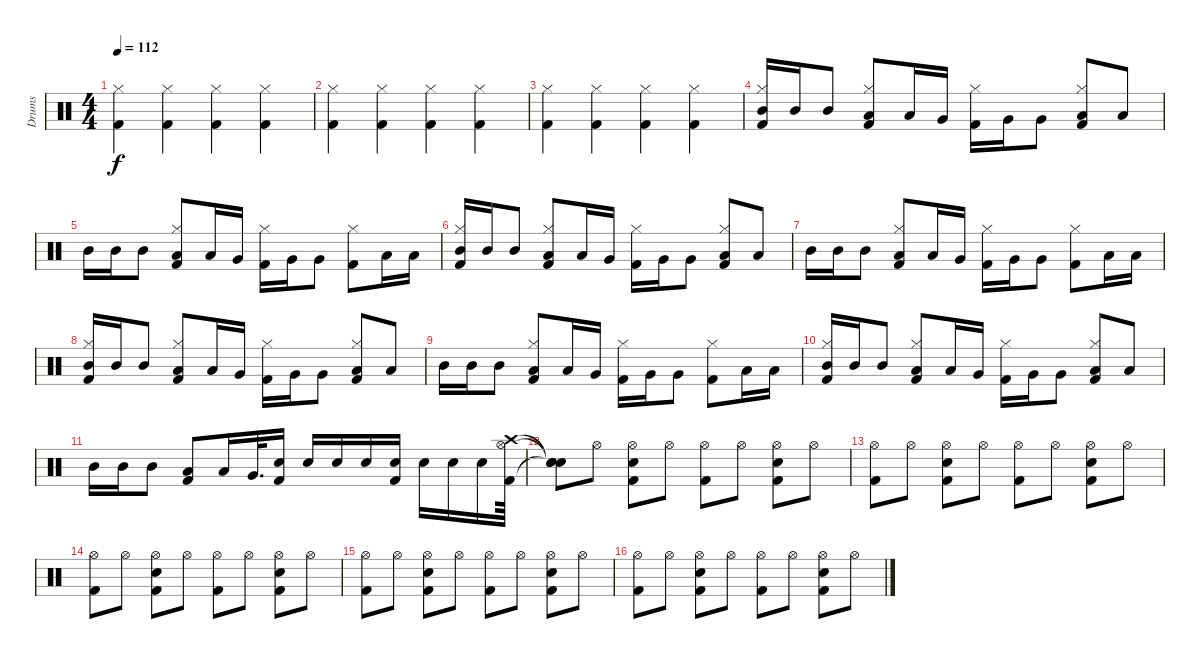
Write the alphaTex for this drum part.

\track ("Drums" "Drums") {instrument percussion}
\staff {score}
\articulation defaults
\ts (4 4)
\tempo 112
\clef neutral
\ks c
("Kick (hit) 2" "Hi-Hat (closed)").4{dy f} ("Hi-Hat (closed)" "Kick (hit) 2").4 ("Kick (hit) 2" "Hi-Hat (closed)").4 ("Hi-Hat (closed)" "Kick (hit) 2").4 |
("Kick (hit) 2" "Hi-Hat (closed)").4 ("Hi-Hat (closed)" "Kick (hit) 2").4 ("Kick (hit) 2" "Hi-Hat (closed)").4 ("Hi-Hat (closed)" "Kick (hit) 2").4 |
("Kick (hit) 2" "Hi-Hat (closed)").4 ("Hi-Hat (closed)" "Kick (hit) 2").4 ("Kick (hit) 2" "Hi-Hat (closed)").4 ("Hi-Hat (closed)" "Kick (hit) 2").4 |
("Hi-Hat (closed)" "Kick (hit) 2" "Mid Tom (hit)").16 "Mid Tom (hit)".16 "Mid Tom (hit)".8 ("Hi-Hat (closed)" "Low Tom (hit)" "Kick (hit) 2").8 "Low Tom (hit)".16 "Very Low Tom (hit)".16 ("Kick (hit) 2" "Hi-Hat (closed)").16 "Very Low Tom (hit)".16 "Very Low Tom (hit)".8 ("Low Floor Tom (hit)" "Kick (hit) 2" "Hi-Hat (closed)").8 "Low Floor Tom (hit)".8 |
"Mid Tom (hit)".16 "Mid Tom (hit)".16 "Mid Tom (hit)".8 ("Hi-Hat (closed)" "Kick (hit) 2" "Low Tom (hit)").8 "Low Tom (hit)".16 "Very Low Tom (hit)".16 ("Kick (hit) 2" "Hi-Hat (closed)").16 "Very Low Tom (hit)".16 "Very Low Tom (hit)".8 ("Kick (hit) 2" "Hi-Hat (closed)").8 "Low Floor Tom (hit)".16 "Low Floor Tom (hit)".16 |
("Hi-Hat (closed)" "Kick (hit) 2" "Mid Tom (hit)").16 "Mid Tom (hit)".16 "Mid Tom (hit)".8 ("Hi-Hat (closed)" "Low Tom (hit)" "Kick (hit) 2").8 "Low Tom (hit)".16 "Very Low Tom (hit)".16 ("Kick (hit) 2" "Hi-Hat (closed)").16 "Very Low Tom (hit)".16 "Very Low Tom (hit)".8 ("Low Floor Tom (hit)" "Kick (hit) 2" "Hi-Hat (closed)").8 "Low Floor Tom (hit)".8 |
"Mid Tom (hit)".16 "Mid Tom (hit)".16 "Mid Tom (hit)".8 ("Hi-Hat (closed)" "Kick (hit) 2" "Low Tom (hit)").8 "Low Tom (hit)".16 "Very Low Tom (hit)".16 ("Kick (hit) 2" "Hi-Hat (closed)").16 "Very Low Tom (hit)".16 "Very Low Tom (hit)".8 ("Kick (hit) 2" "Hi-Hat (closed)").8 "Low Floor Tom (hit)".16 "Low Floor Tom (hit)".16 |
("Hi-Hat (closed)" "Kick (hit) 2" "Mid Tom (hit)").16 "Mid Tom (hit)".16 "Mid Tom (hit)".8 ("Hi-Hat (closed)" "Low Tom (hit)" "Kick (hit) 2").8 "Low Tom (hit)".16 "Very Low Tom (hit)".16 ("Kick (hit) 2" "Hi-Hat (closed)").16 "Very Low Tom (hit)".16 "Very Low Tom (hit)".8 ("Low Floor Tom (hit)" "Kick (hit) 2" "Hi-Hat (closed)").8 "Low Floor Tom (hit)".8 |
"Mid Tom (hit)".16 "Mid Tom (hit)".16 "Mid Tom (hit)".8 ("Hi-Hat (closed)" "Kick (hit) 2" "Low Tom (hit)").8 "Low Tom (hit)".16 "Very Low Tom (hit)".16 ("Kick (hit) 2" "Hi-Hat (closed)").16 "Very Low Tom (hit)".16 "Very Low Tom (hit)".8 ("Kick (hit) 2" "Hi-Hat (closed)").8 "Low Floor Tom (hit)".16 "Low Floor Tom (hit)".16 |
("Hi-Hat (closed)" "Kick (hit) 2" "Mid Tom (hit)").16 "Mid Tom (hit)".16 "Mid Tom (hit)".8 ("Hi-Hat (closed)" "Low Tom (hit)" "Kick (hit) 2").8 "Low Tom (hit)".16 "Very Low Tom (hit)".16 ("Kick (hit) 2" "Hi-Hat (closed)").16 "Very Low Tom (hit)".16 "Very Low Tom (hit)".8 ("Low Floor Tom (hit)" "Kick (hit) 2" "Hi-Hat (closed)").8 "Low Floor Tom (hit)".8 |
"Mid Tom (hit)".16 "Mid Tom (hit)".16 "Mid Tom (hit)".8 ("Kick (hit) 2" "Low Tom (hit)").8 "Low Tom (hit)".16 "Very Low Tom (hit)".32{d} ("Snare (hit) 2" "Kick (hit) 2").16 "Snare (hit) 2".16 "Snare (hit) 2".16 "Snare (hit) 2".16 ("Snare (hit) 2" "Kick (hit) 2").16 "Snare (hit) 2".16 "Snare (hit) 2".16 "Snare (hit) 2".16 ("Kick (hit) 2" "Crash high (hit)" "Hi-Hat (open)").64 |
("Snare (hit)"{t} "Snare (hit)"{t} "Snare (hit)"{t}).8 "Hi-Hat (open)".8 ("Hi-Hat (open)" "Kick (hit) 2" "Snare (hit) 2").8 "Hi-Hat (open)".8 ("Kick (hit) 2" "Hi-Hat (open)").8 "Hi-Hat (open)".8 ("Kick (hit) 2" "Hi-Hat (open)" "Snare (hit) 2").8 "Hi-Hat (open)".8 |
("Hi-Hat (open)" "Kick (hit) 2").8 "Hi-Hat (open)".8 ("Hi-Hat (open)" "Kick (hit) 2" "Snare (hit) 2").8 "Hi-Hat (open)".8 ("Kick (hit) 2" "Hi-Hat (open)").8 "Hi-Hat (open)".8 ("Kick (hit) 2" "Snare (hit) 2" "Hi-Hat (open)").8 "Hi-Hat (open)".8 |
("Hi-Hat (open)" "Kick (hit) 2").8 "Hi-Hat (open)".8 ("Hi-Hat (open)" "Kick (hit) 2" "Snare (hit) 2").8 "Hi-Hat (open)".8 ("Kick (hit) 2" "Hi-Hat (open)").8 "Hi-Hat (open)".8 ("Kick (hit) 2" "Snare (hit) 2" "Hi-Hat (open)").8 "Hi-Hat (open)".8 |
("Hi-Hat (open)" "Kick (hit) 2").8 "Hi-Hat (open)".8 ("Hi-Hat (open)" "Kick (hit) 2" "Snare (hit) 2").8 "Hi-Hat (open)".8 ("Kick (hit) 2" "Hi-Hat (open)").8 "Hi-Hat (open)".8 ("Kick (hit) 2" "Snare (hit) 2" "Hi-Hat (open)").8 "Hi-Hat (open)".8 |
("Hi-Hat (open)" "Kick (hit) 2").8 "Hi-Hat (open)".8 ("Hi-Hat (open)" "Kick (hit) 2" "Snare (hit) 2").8 "Hi-Hat (open)".8 ("Kick (hit) 2" "Hi-Hat (open)").8 "Hi-Hat (open)".8 ("Kick (hit) 2" "Snare (hit) 2" "Hi-Hat (open)").8 "Hi-Hat (open)".8
